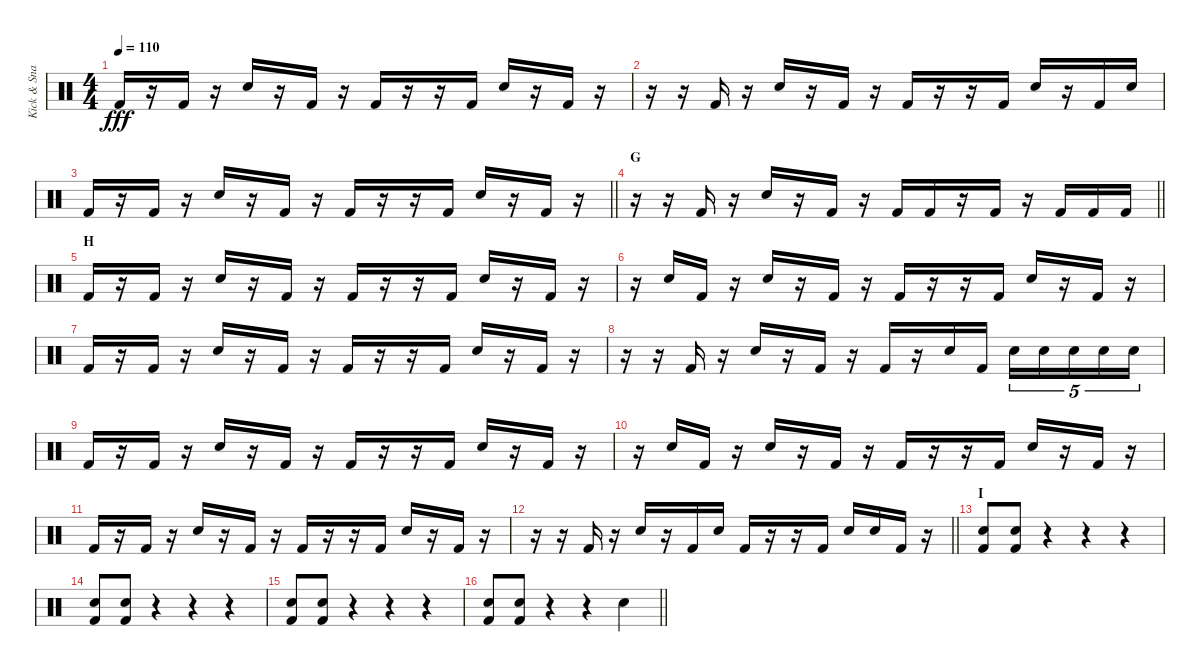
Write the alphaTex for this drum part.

\track ("Kick & Snare" "Kick & Sna") {instrument percussion}
\staff {score}
\articulation defaults
\ts (4 4)
\tempo 110
\clef neutral
\ks c "Kick (hit) 2".16{dy fff}
r.16 "Kick (hit) 2".16 r.16 "Snare (hit) 2".16 r.16 "Kick (hit) 2".16 r.16 "Kick (hit) 2".16 r.16 r.16 "Kick (hit) 2".16 "Snare (hit) 2".16 r.16 "Kick (hit) 2".16 r.16 |
r.16 r.16 "Kick (hit) 2".16 r.16 "Snare (hit) 2".16 r.16 "Kick (hit) 2".16 r.16 "Kick (hit) 2".16 r.16 r.16 "Kick (hit) 2".16 "Snare (hit) 2".16 r.16 "Kick (hit) 2".16 "Snare (hit) 2".16 |
\barLineRight lightlight "Kick (hit) 2".16
r.16 "Kick (hit) 2".16 r.16 "Snare (hit) 2".16 r.16 "Kick (hit) 2".16 r.16 "Kick (hit) 2".16 r.16 r.16 "Kick (hit) 2".16 "Snare (hit) 2".16 r.16 "Kick (hit) 2".16 r.16 |
\section ("" "G")
\barLineRight lightlight
r.16 r.16 "Kick (hit) 2".16 r.16 "Snare (hit) 2".16 r.16 "Kick (hit) 2".16 r.16 "Kick (hit) 2".16 "Kick (hit) 2".16 r.16 "Kick (hit) 2".16 r.16 "Kick (hit) 2".16 "Kick (hit) 2".16 "Kick (hit) 2".16 |
\section ("" "H")
"Kick (hit) 2".16 r.16 "Kick (hit) 2".16 r.16 "Snare (hit) 2".16 r.16 "Kick (hit) 2".16 r.16 "Kick (hit) 2".16 r.16 r.16 "Kick (hit) 2".16 "Snare (hit) 2".16 r.16 "Kick (hit) 2".16 r.16 |
r.16 "Snare (hit) 2".16 "Kick (hit) 2".16 r.16 "Snare (hit) 2".16 r.16 "Kick (hit) 2".16 r.16 "Kick (hit) 2".16 r.16 r.16 "Kick (hit) 2".16 "Snare (hit) 2".16 r.16 "Kick (hit) 2".16 r.16 |
"Kick (hit) 2".16 r.16 "Kick (hit) 2".16 r.16 "Snare (hit) 2".16 r.16 "Kick (hit) 2".16 r.16 "Kick (hit) 2".16 r.16 r.16 "Kick (hit) 2".16 "Snare (hit) 2".16 r.16 "Kick (hit) 2".16 r.16 |
r.16 r.16 "Kick (hit) 2".16 r.16 "Snare (hit) 2".16 r.16 "Kick (hit) 2".16 r.16 "Kick (hit) 2".16 r.16 "Snare (hit) 2".16 "Kick (hit) 2".16 "Snare (hit) 2".16{tu (5 4)} "Snare (hit) 2".16{tu (5 4)} "Snare (hit) 2".16{tu (5 4)} "Snare (hit) 2".16{tu (5 4)} "Snare (hit) 2".16{tu (5 4)} |
"Kick (hit) 2".16 r.16 "Kick (hit) 2".16 r.16 "Snare (hit) 2".16 r.16 "Kick (hit) 2".16 r.16 "Kick (hit) 2".16 r.16 r.16 "Kick (hit) 2".16 "Snare (hit) 2".16 r.16 "Kick (hit) 2".16 r.16 |
r.16 "Snare (hit) 2".16 "Kick (hit) 2".16 r.16 "Snare (hit) 2".16 r.16 "Kick (hit) 2".16 r.16 "Kick (hit) 2".16 r.16 r.16 "Kick (hit) 2".16 "Snare (hit) 2".16 r.16 "Kick (hit) 2".16 r.16 |
"Kick (hit) 2".16 r.16 "Kick (hit) 2".16 r.16 "Snare (hit) 2".16 r.16 "Kick (hit) 2".16 r.16 "Kick (hit) 2".16 r.16 r.16 "Kick (hit) 2".16 "Snare (hit) 2".16 r.16 "Kick (hit) 2".16 r.16 |
\barLineRight lightlight
r.16 r.16 "Kick (hit) 2".16 r.16 "Snare (hit) 2".16 r.16 "Kick (hit) 2".16 "Snare (hit) 2".16 "Kick (hit) 2".16 r.16 r.16 "Kick (hit) 2".16 "Snare (hit) 2".16 "Snare (hit) 2".16 "Kick (hit) 2".16 r.16 |
\section ("" "I")
("Snare (hit) 2" "Kick (hit) 2").8 ("Snare (hit) 2" "Kick (hit) 2").8 r.4 r.4 r.4 |
("Snare (hit) 2" "Kick (hit) 2").8 ("Snare (hit) 2" "Kick (hit) 2").8 r.4 r.4 r.4 |
("Snare (hit) 2" "Kick (hit) 2").8 ("Snare (hit) 2" "Kick (hit) 2").8 r.4 r.4 r.4 |
\barLineRight lightlight
("Snare (hit) 2" "Kick (hit) 2").8 ("Snare (hit) 2" "Kick (hit) 2").8 r.4 r.4 "Snare (hit) 2".4
